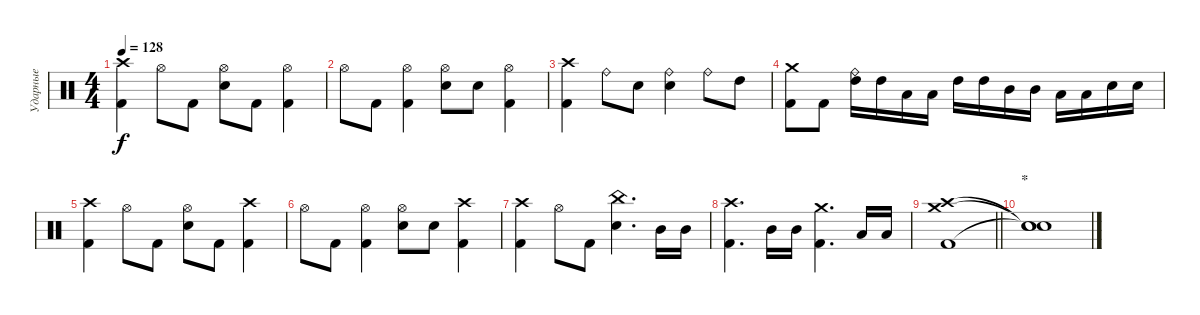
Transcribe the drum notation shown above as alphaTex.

\track ("Ударные" "Ударные") {instrument percussion}
\staff {score}
\articulation defaults
\ts (4 4)
\tempo 128
\clef neutral
\ks c
("Crash high (hit)" "Kick (hit) 2").4{dy f} "Hi-Hat (open)".8 "Kick (hit) 2".8 ("Hi-Hat (open)" "Snare (hit) 2").8 "Kick (hit) 2".8 ("Hi-Hat (open)" "Kick (hit) 2").4 |
"Hi-Hat (open)".8 "Kick (hit) 2".8 ("Hi-Hat (open)" "Kick (hit) 2").4 ("Hi-Hat (open)" "Snare (hit) 2").8 "Snare (hit) 2".8 ("Hi-Hat (open)" "Kick (hit) 2").4 |
("Crash high (hit)" "Kick (hit) 2").4 "Ride (bell)".8 "Snare (hit) 2".8 ("Ride (bell)" "Snare (hit) 2").4 "Ride (bell)".8 "High Tom (hit)".8 |
("Crash medium (hit)" "Kick (hit) 2").8 "Kick (hit) 2".8 ("Ride (bell)" "High Tom (hit)").16 "High Tom (hit)".16 "Low Tom (hit)".16 "Low Tom (hit)".16 "High Tom (hit)".16 "High Tom (hit)".16 "Mid Tom (hit)".16 "Mid Tom (hit)".16 "Low Tom (hit)".16 "Low Tom (hit)".16 "Snare (hit) 2".16 "Snare (hit) 2".16 |
("Crash high (hit)" "Kick (hit) 2").4 "Hi-Hat (open)".8 "Kick (hit) 2".8 ("Hi-Hat (open)" "Snare (hit) 2").8 "Kick (hit) 2".8 ("Crash high (hit)" "Kick (hit) 2").4 |
"Hi-Hat (open)".8 "Kick (hit) 2".8 ("Hi-Hat (open)" "Kick (hit) 2").4 ("Hi-Hat (open)" "Snare (hit) 2").8 "Snare (hit) 2".8 ("Crash high (hit)" "Kick (hit) 2").4 |
("Crash high (hit)" "Kick (hit) 2").4 "Hi-Hat (open)".8 "Kick (hit) 2".8 ("China (hit)" "Snare (hit) 2").4{d} "Mid Tom (hit)".16 "Mid Tom (hit)".16 |
("Crash high (hit)" "Kick (hit) 2").4{d} "Mid Tom (hit)".16 "Mid Tom (hit)".16 ("Crash medium (hit)" "Kick (hit) 2").4{d} "Low Tom (hit)".16 "Low Tom (hit)".16 |
\barLineRight lightlight
("Crash high (hit)" "Crash medium (hit)" "Kick (hit) 2").1 |
\section ("" "*")
("Snare (hit)"{t} "Snare (hit)"{t} "Snare (hit)"{t}).1
